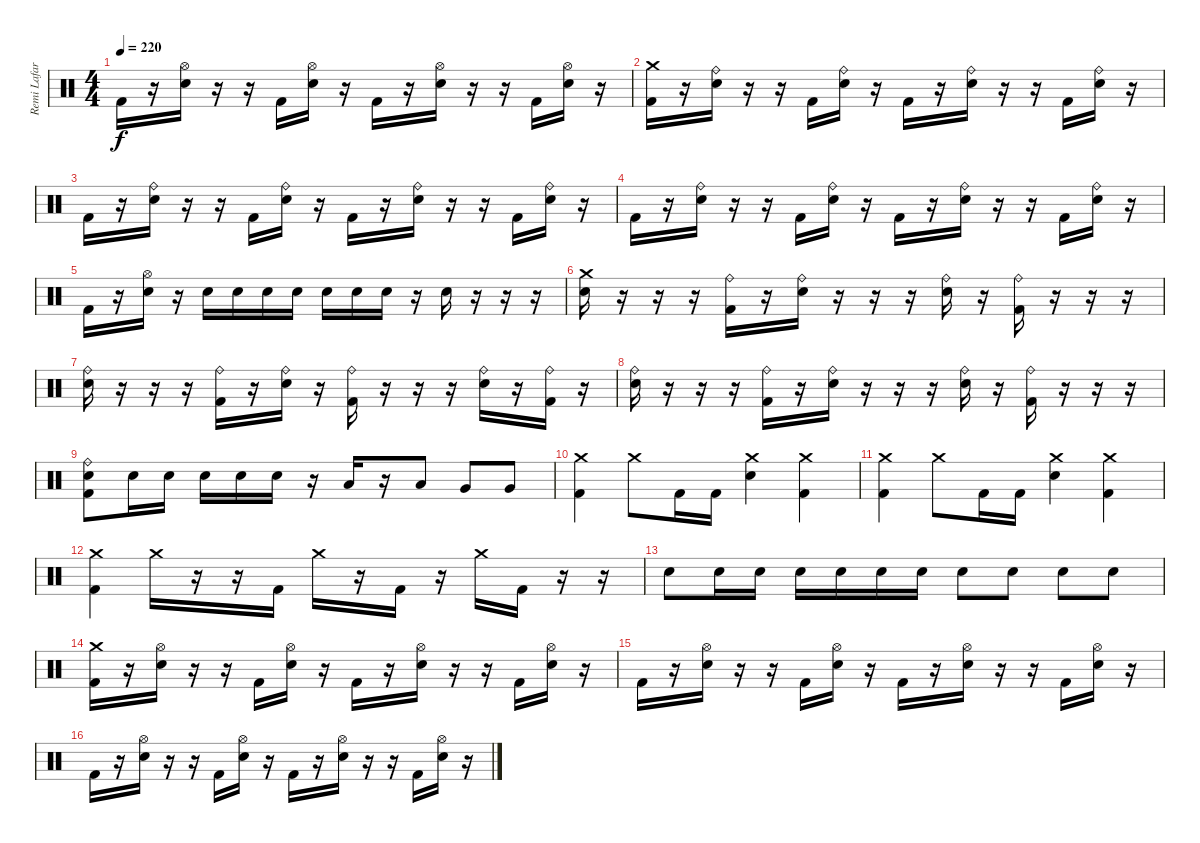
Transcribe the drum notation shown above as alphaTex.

\track ("Remi Lafargue " "Remi Lafar") {instrument percussion}
\staff {score}
\articulation defaults
\ts (4 4)
\tempo 220
\clef neutral
\ks c "Kick (hit) 2".16{dy f}
r.16 ("Hi-Hat (open)" "Snare (hit) 2").16 r.16 r.16 "Kick (hit) 2".16 ("Hi-Hat (open)" "Snare (hit) 2").16 r.16 "Kick (hit) 2".16 r.16 ("Hi-Hat (open)" "Snare (hit) 2").16 r.16 r.16 "Kick (hit) 2".16 ("Hi-Hat (open)" "Snare (hit) 2").16 r.16 |
("Crash medium (hit)" "Kick (hit) 2").16 r.16 ("Ride (bell)" "Snare (hit) 2").16 r.16 r.16 "Kick (hit) 2".16 ("Ride (bell)" "Snare (hit) 2").16 r.16 "Kick (hit) 2".16 r.16 ("Ride (bell)" "Snare (hit) 2").16 r.16 r.16 "Kick (hit) 2".16 ("Ride (bell)" "Snare (hit) 2").16 r.16 |
"Kick (hit) 2".16 r.16 ("Ride (bell)" "Snare (hit) 2").16 r.16 r.16 "Kick (hit) 2".16 ("Ride (bell)" "Snare (hit) 2").16 r.16 "Kick (hit) 2".16 r.16 ("Ride (bell)" "Snare (hit) 2").16 r.16 r.16 "Kick (hit) 2".16 ("Ride (bell)" "Snare (hit) 2").16 r.16 |
"Kick (hit) 2".16 r.16 ("Ride (bell)" "Snare (hit) 2").16 r.16 r.16 "Kick (hit) 2".16 ("Ride (bell)" "Snare (hit) 2").16 r.16 "Kick (hit) 2".16 r.16 ("Ride (bell)" "Snare (hit) 2").16 r.16 r.16 "Kick (hit) 2".16 ("Ride (bell)" "Snare (hit) 2").16 r.16 |
"Kick (hit) 2".16 r.16 ("Hi-Hat (open)" "Snare (hit) 2").16 r.16 "Snare (hit) 2".16 "Snare (hit) 2".16 "Snare (hit) 2".16 "Snare (hit) 2".16 "Snare (hit) 2".16 "Snare (hit) 2".16 "Snare (hit) 2".16 r.16 "Snare (hit) 2".16 r.16 r.16 r.16 |
("Crash medium (hit)" "Snare (hit) 2").16 r.16 r.16 r.16 ("Ride (bell)" "Kick (hit) 2").16 r.16 ("Ride (bell)" "Snare (hit) 2").16 r.16 r.16 r.16 ("Ride (bell)" "Snare (hit) 2").16 r.16 ("Ride (bell)" "Kick (hit) 2").16 r.16 r.16 r.16 |
("Ride (bell)" "Snare (hit) 2").16 r.16 r.16 r.16 ("Ride (bell)" "Kick (hit) 2").16 r.16 ("Ride (bell)" "Snare (hit) 2").16 r.16 ("Ride (bell)" "Kick (hit) 2").16 r.16 r.16 r.16 ("Ride (bell)" "Snare (hit) 2").16 r.16 ("Ride (bell)" "Kick (hit) 2").16 r.16 |
("Ride (bell)" "Snare (hit) 2").16 r.16 r.16 r.16 ("Ride (bell)" "Kick (hit) 2").16 r.16 ("Ride (bell)" "Snare (hit) 2").16 r.16 r.16 r.16 ("Ride (bell)" "Snare (hit) 2").16 r.16 ("Ride (bell)" "Kick (hit) 2").16 r.16 r.16 r.16 |
("Ride (bell)" "Snare (hit) 2" "Kick (hit) 2").8 "Snare (hit) 2".16 "Snare (hit) 2".16 "Snare (hit) 2".16 "Snare (hit) 2".16 "Snare (hit) 2".16 r.16 "Low Tom (hit)".16 r.16 "Low Tom (hit)".8 "Very Low Tom (hit)".8 "Very Low Tom (hit)".8 |
("Crash medium (hit)" "Kick (hit) 2").4 "Crash medium (hit)".8 "Kick (hit) 2".16 "Kick (hit) 2".16 ("Crash medium (hit)" "Snare (hit) 2").4 ("Crash medium (hit)" "Kick (hit) 2").4 |
("Crash medium (hit)" "Kick (hit) 2").4 "Crash medium (hit)".8 "Kick (hit) 2".16 "Kick (hit) 2".16 ("Crash medium (hit)" "Snare (hit) 2").4 ("Crash medium (hit)" "Kick (hit) 2").4 |
("Crash medium (hit)" "Kick (hit) 2").4 "Crash medium (hit)".16 r.16 r.16 "Kick (hit) 2".16 "Crash medium (hit)".16 r.16 "Kick (hit) 2".16 r.16 "Crash medium (hit)".16 "Kick (hit) 2".16 r.16 r.16 |
"Snare (hit) 2".8 "Snare (hit) 2".16 "Snare (hit) 2".16 "Snare (hit) 2".16 "Snare (hit) 2".16 "Snare (hit) 2".16 "Snare (hit) 2".16 "Snare (hit) 2".8 "Snare (hit) 2".8 "Snare (hit) 2".8 "Snare (hit) 2".8 |
("Crash medium (hit)" "Kick (hit) 2").16 r.16 ("Hi-Hat (open)" "Snare (hit) 2").16 r.16 r.16 "Kick (hit) 2".16 ("Hi-Hat (open)" "Snare (hit) 2").16 r.16 "Kick (hit) 2".16 r.16 ("Hi-Hat (open)" "Snare (hit) 2").16 r.16 r.16 "Kick (hit) 2".16 ("Hi-Hat (open)" "Snare (hit) 2").16 r.16 |
"Kick (hit) 2".16 r.16 ("Hi-Hat (open)" "Snare (hit) 2").16 r.16 r.16 "Kick (hit) 2".16 ("Hi-Hat (open)" "Snare (hit) 2").16 r.16 "Kick (hit) 2".16 r.16 ("Hi-Hat (open)" "Snare (hit) 2").16 r.16 r.16 "Kick (hit) 2".16 ("Hi-Hat (open)" "Snare (hit) 2").16 r.16 |
"Kick (hit) 2".16 r.16 ("Hi-Hat (open)" "Snare (hit) 2").16 r.16 r.16 "Kick (hit) 2".16 ("Hi-Hat (open)" "Snare (hit) 2").16 r.16 "Kick (hit) 2".16 r.16 ("Hi-Hat (open)" "Snare (hit) 2").16 r.16 r.16 "Kick (hit) 2".16 ("Hi-Hat (open)" "Snare (hit) 2").16 r.16
